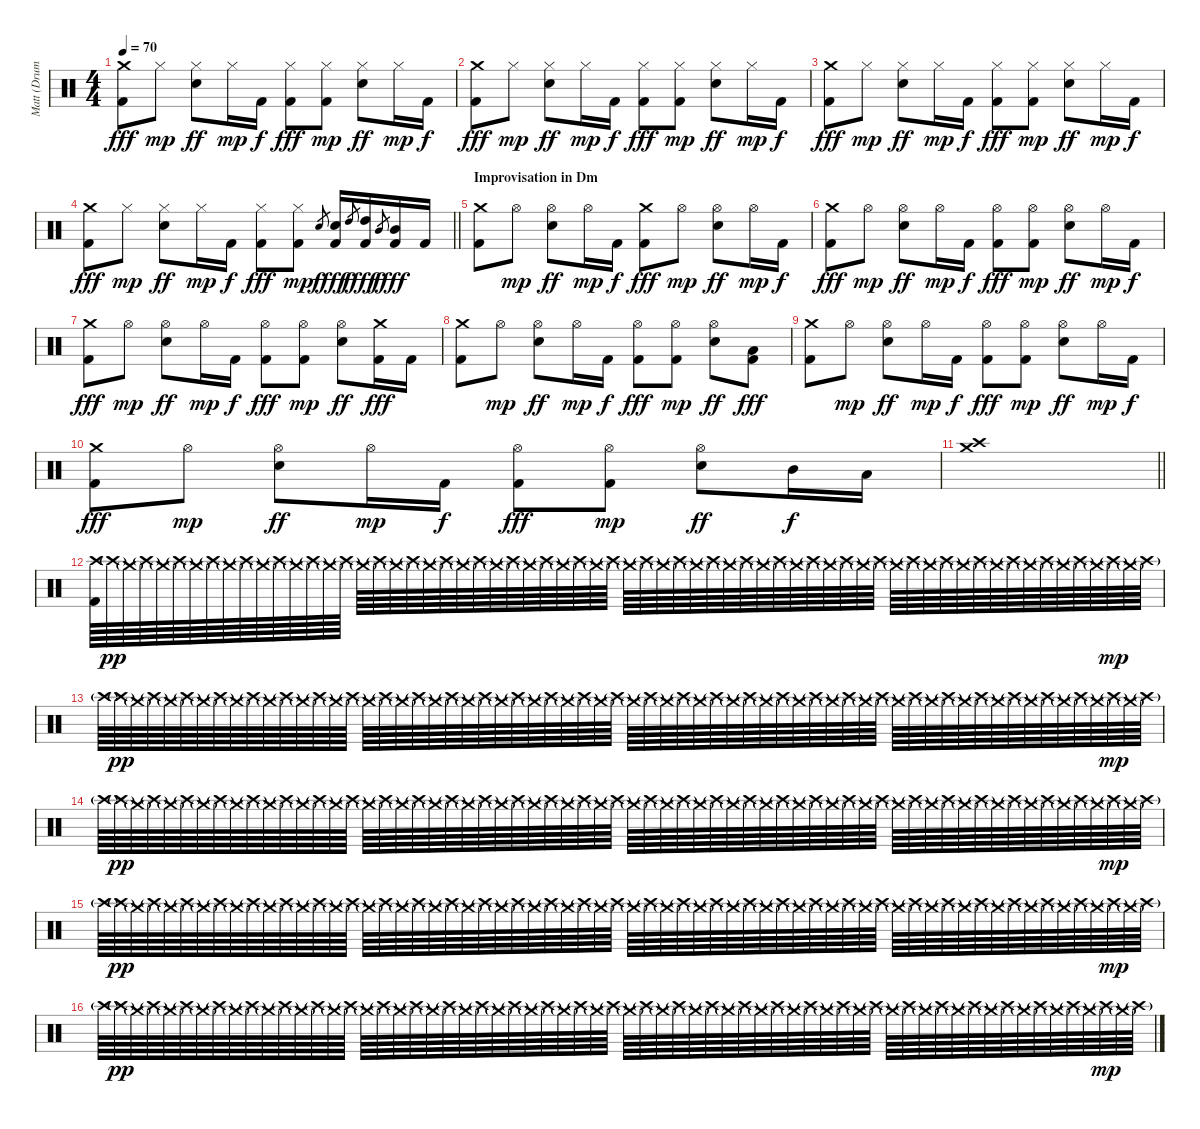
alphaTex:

\track ("Matt (Drums)" "Matt (Drum") {instrument percussion}
\staff {score}
\articulation defaults
\ts (4 4)
\tempo 70
\clef neutral
\ks c
("Crash medium (hit)" "Kick (hit) 2").8{dy fff} "Hi-Hat (closed)".8{dy mp} ("Hi-Hat (closed)" "Snare (hit) 2").8{dy ff} "Hi-Hat (closed)".16{dy mp} "Kick (hit) 2".16{dy f} ("Hi-Hat (closed)" "Kick (hit) 2").8{dy fff} ("Hi-Hat (closed)" "Kick (hit) 2").8{dy mp} ("Hi-Hat (closed)" "Snare (hit) 2").8{dy ff} "Hi-Hat (closed)".16{dy mp} "Kick (hit) 2".16{dy f} |
("Crash medium (hit)" "Kick (hit) 2").8{dy fff} "Hi-Hat (closed)".8{dy mp} ("Hi-Hat (closed)" "Snare (hit) 2").8{dy ff} "Hi-Hat (closed)".16{dy mp} "Kick (hit) 2".16{dy f} ("Hi-Hat (closed)" "Kick (hit) 2").8{dy fff} ("Hi-Hat (closed)" "Kick (hit) 2").8{dy mp} ("Hi-Hat (closed)" "Snare (hit) 2").8{dy ff} "Hi-Hat (closed)".16{dy mp} "Kick (hit) 2".16{dy f} |
("Crash medium (hit)" "Kick (hit) 2").8{dy fff} "Hi-Hat (closed)".8{dy mp} ("Hi-Hat (closed)" "Snare (hit) 2").8{dy ff} "Hi-Hat (closed)".16{dy mp} "Kick (hit) 2".16{dy f} ("Hi-Hat (closed)" "Kick (hit) 2").8{dy fff} ("Hi-Hat (closed)" "Kick (hit) 2").8{dy mp} ("Hi-Hat (closed)" "Snare (hit) 2").8{dy ff} "Hi-Hat (closed)".16{dy mp} "Kick (hit) 2".16{dy f} |
\barLineRight lightlight
("Crash medium (hit)" "Kick (hit) 2").8{dy fff} "Hi-Hat (closed)".8{dy mp} ("Hi-Hat (closed)" "Snare (hit) 2").8{dy ff} "Hi-Hat (closed)".16{dy mp} "Kick (hit) 2".16{dy f} ("Hi-Hat (closed)" "Kick (hit) 2").8{dy fff} ("Hi-Hat (closed)" "Kick (hit) 2").8{dy mp} "Snare (hit) 2".8{gr dy f} ("Snare (hit) 2" "Kick (hit) 2").16{dy fff} "High Tom (hit)".8{gr dy f} ("High Tom (hit)" "Kick (hit) 2").16{dy fff} "Mid Tom (hit)".8{gr dy f} ("Mid Tom (hit)" "Kick (hit) 2").16{dy fff} "Kick (hit) 2".16 |
\section ("" "Improvisation in Dm")
("Crash medium (hit)" "Kick (hit) 2").8 "Hi-Hat (open)".8{dy mp} ("Hi-Hat (open)" "Snare (hit) 2").8{dy ff} "Hi-Hat (open)".16{dy mp} "Kick (hit) 2".16{dy f} ("Crash medium (hit)" "Kick (hit) 2").8{dy fff} "Hi-Hat (open)".8{dy mp} ("Hi-Hat (open)" "Snare (hit) 2").8{dy ff} "Hi-Hat (open)".16{dy mp} "Kick (hit) 2".16{dy f} |
("Crash medium (hit)" "Kick (hit) 2").8{dy fff} "Hi-Hat (open)".8{dy mp} ("Hi-Hat (open)" "Snare (hit) 2").8{dy ff} "Hi-Hat (open)".16{dy mp} "Kick (hit) 2".16{dy f} ("Hi-Hat (open)" "Kick (hit) 2").8{dy fff} ("Hi-Hat (open)" "Kick (hit) 2").8{dy mp} ("Hi-Hat (open)" "Snare (hit) 2").8{dy ff} "Hi-Hat (open)".16{dy mp} "Kick (hit) 2".16{dy f} |
("Crash medium (hit)" "Kick (hit) 2").8{dy fff} "Hi-Hat (open)".8{dy mp} ("Hi-Hat (open)" "Snare (hit) 2").8{dy ff} "Hi-Hat (open)".16{dy mp} "Kick (hit) 2".16{dy f} ("Hi-Hat (open)" "Kick (hit) 2").8{dy fff} ("Hi-Hat (open)" "Kick (hit) 2").8{dy mp} ("Hi-Hat (open)" "Snare (hit) 2").8{dy ff} ("Crash medium (hit)" "Kick (hit) 2").16{dy fff} "Kick (hit) 2".16 |
("Crash medium (hit)" "Kick (hit) 2").8 "Hi-Hat (open)".8{dy mp} ("Hi-Hat (open)" "Snare (hit) 2").8{dy ff} "Hi-Hat (open)".16{dy mp} "Kick (hit) 2".16{dy f} ("Hi-Hat (open)" "Kick (hit) 2").8{dy fff} ("Hi-Hat (open)" "Kick (hit) 2").8{dy mp} ("Hi-Hat (open)" "Snare (hit) 2").8{dy ff} ("Low Tom (hit)" "Kick (hit) 2").8{dy fff} |
("Crash medium (hit)" "Kick (hit) 2").8 "Hi-Hat (open)".8{dy mp} ("Hi-Hat (open)" "Snare (hit) 2").8{dy ff} "Hi-Hat (open)".16{dy mp} "Kick (hit) 2".16{dy f} ("Hi-Hat (open)" "Kick (hit) 2").8{dy fff} ("Hi-Hat (open)" "Kick (hit) 2").8{dy mp} ("Hi-Hat (open)" "Snare (hit) 2").8{dy ff} "Hi-Hat (open)".16{dy mp} "Kick (hit) 2".16{dy f} |
("Crash medium (hit)" "Kick (hit) 2").8{dy fff} "Hi-Hat (open)".8{dy mp} ("Hi-Hat (open)" "Snare (hit) 2").8{dy ff} "Hi-Hat (open)".16{dy mp} "Kick (hit) 2".16{dy f} ("Hi-Hat (open)" "Kick (hit) 2").8{dy fff} ("Hi-Hat (open)" "Kick (hit) 2").8{dy mp} ("Hi-Hat (open)" "Snare (hit) 2").8{dy ff} "Mid Tom (hit)".16{dy f} "Low Tom (hit)".16 |
\barLineRight lightlight
("Crash medium (hit)" "Crash high (hit)").1 |
("Crash high (hit)" "Kick (hit) 2").64 "Crash high (hit)"{g}.64{dy pp} "Crash medium (hit)"{g}.64 "Crash high (hit)"{g}.64 "Crash medium (hit)"{g}.64 "Crash high (hit)"{g}.64 "Crash medium (hit)"{g}.64 "Crash high (hit)"{g}.64 "Crash medium (hit)"{g}.64 "Crash high (hit)"{g}.64 "Crash medium (hit)"{g}.64 "Crash high (hit)"{g}.64 "Crash medium (hit)"{g}.64 "Crash high (hit)"{g}.64 "Crash medium (hit)"{g}.64 "Crash high (hit)"{g}.64 "Crash medium (hit)"{g}.64 "Crash high (hit)"{g}.64 "Crash medium (hit)"{g}.64 "Crash high (hit)"{g}.64 "Crash medium (hit)"{g}.64 "Crash high (hit)"{g}.64 "Crash medium (hit)"{g}.64 "Crash high (hit)"{g}.64 "Crash medium (hit)"{g}.64 "Crash high (hit)"{g}.64 "Crash medium (hit)"{g}.64 "Crash high (hit)"{g}.64 "Crash medium (hit)"{g}.64 "Crash high (hit)"{g}.64 "Crash medium (hit)"{g}.64 "Crash high (hit)"{g}.64 "Crash medium (hit)"{g}.64 "Crash high (hit)"{g}.64 "Crash medium (hit)"{g}.64 "Crash high (hit)"{g}.64 "Crash medium (hit)"{g}.64 "Crash high (hit)"{g}.64 "Crash medium (hit)"{g}.64 "Crash high (hit)"{g}.64 "Crash medium (hit)"{g}.64 "Crash high (hit)"{g}.64 "Crash medium (hit)"{g}.64 "Crash high (hit)"{g}.64 "Crash medium (hit)"{g}.64 "Crash high (hit)"{g}.64 "Crash medium (hit)"{g}.64 "Crash high (hit)"{g}.64 "Crash medium (hit)"{g}.64 "Crash high (hit)"{g}.64 "Crash medium (hit)"{g}.64 "Crash high (hit)"{g}.64 "Crash medium (hit)"{g}.64 "Crash high (hit)"{g}.64 "Crash medium (hit)"{g}.64 "Crash high (hit)"{g}.64 "Crash medium (hit)"{g}.64 "Crash high (hit)"{g}.64 "Crash medium (hit)"{g}.64 "Crash high (hit)"{g}.64 "Crash medium (hit)"{g}.64 "Crash high (hit)"{g}.64{dy mp} "Crash medium (hit)"{g}.64 "Crash high (hit)"{g}.64 |
"Crash high (hit)"{g}.64 "Crash high (hit)"{g}.64{dy pp} "Crash medium (hit)"{g}.64 "Crash high (hit)"{g}.64 "Crash medium (hit)"{g}.64 "Crash high (hit)"{g}.64 "Crash medium (hit)"{g}.64 "Crash high (hit)"{g}.64 "Crash medium (hit)"{g}.64 "Crash high (hit)"{g}.64 "Crash medium (hit)"{g}.64 "Crash high (hit)"{g}.64 "Crash medium (hit)"{g}.64 "Crash high (hit)"{g}.64 "Crash medium (hit)"{g}.64 "Crash high (hit)"{g}.64 "Crash medium (hit)"{g}.64 "Crash high (hit)"{g}.64 "Crash medium (hit)"{g}.64 "Crash high (hit)"{g}.64 "Crash medium (hit)"{g}.64 "Crash high (hit)"{g}.64 "Crash medium (hit)"{g}.64 "Crash high (hit)"{g}.64 "Crash medium (hit)"{g}.64 "Crash high (hit)"{g}.64 "Crash medium (hit)"{g}.64 "Crash high (hit)"{g}.64 "Crash medium (hit)"{g}.64 "Crash high (hit)"{g}.64 "Crash medium (hit)"{g}.64 "Crash high (hit)"{g}.64 "Crash medium (hit)"{g}.64 "Crash high (hit)"{g}.64 "Crash medium (hit)"{g}.64 "Crash high (hit)"{g}.64 "Crash medium (hit)"{g}.64 "Crash high (hit)"{g}.64 "Crash medium (hit)"{g}.64 "Crash high (hit)"{g}.64 "Crash medium (hit)"{g}.64 "Crash high (hit)"{g}.64 "Crash medium (hit)"{g}.64 "Crash high (hit)"{g}.64 "Crash medium (hit)"{g}.64 "Crash high (hit)"{g}.64 "Crash medium (hit)"{g}.64 "Crash high (hit)"{g}.64 "Crash medium (hit)"{g}.64 "Crash high (hit)"{g}.64 "Crash medium (hit)"{g}.64 "Crash high (hit)"{g}.64 "Crash medium (hit)"{g}.64 "Crash high (hit)"{g}.64 "Crash medium (hit)"{g}.64 "Crash high (hit)"{g}.64 "Crash medium (hit)"{g}.64 "Crash high (hit)"{g}.64 "Crash medium (hit)"{g}.64 "Crash high (hit)"{g}.64 "Crash medium (hit)"{g}.64 "Crash high (hit)"{g}.64{dy mp} "Crash medium (hit)"{g}.64 "Crash high (hit)"{g}.64 |
"Crash high (hit)"{g}.64 "Crash high (hit)"{g}.64{dy pp} "Crash medium (hit)"{g}.64 "Crash high (hit)"{g}.64 "Crash medium (hit)"{g}.64 "Crash high (hit)"{g}.64 "Crash medium (hit)"{g}.64 "Crash high (hit)"{g}.64 "Crash medium (hit)"{g}.64 "Crash high (hit)"{g}.64 "Crash medium (hit)"{g}.64 "Crash high (hit)"{g}.64 "Crash medium (hit)"{g}.64 "Crash high (hit)"{g}.64 "Crash medium (hit)"{g}.64 "Crash high (hit)"{g}.64 "Crash medium (hit)"{g}.64 "Crash high (hit)"{g}.64 "Crash medium (hit)"{g}.64 "Crash high (hit)"{g}.64 "Crash medium (hit)"{g}.64 "Crash high (hit)"{g}.64 "Crash medium (hit)"{g}.64 "Crash high (hit)"{g}.64 "Crash medium (hit)"{g}.64 "Crash high (hit)"{g}.64 "Crash medium (hit)"{g}.64 "Crash high (hit)"{g}.64 "Crash medium (hit)"{g}.64 "Crash high (hit)"{g}.64 "Crash medium (hit)"{g}.64 "Crash high (hit)"{g}.64 "Crash medium (hit)"{g}.64 "Crash high (hit)"{g}.64 "Crash medium (hit)"{g}.64 "Crash high (hit)"{g}.64 "Crash medium (hit)"{g}.64 "Crash high (hit)"{g}.64 "Crash medium (hit)"{g}.64 "Crash high (hit)"{g}.64 "Crash medium (hit)"{g}.64 "Crash high (hit)"{g}.64 "Crash medium (hit)"{g}.64 "Crash high (hit)"{g}.64 "Crash medium (hit)"{g}.64 "Crash high (hit)"{g}.64 "Crash medium (hit)"{g}.64 "Crash high (hit)"{g}.64 "Crash medium (hit)"{g}.64 "Crash high (hit)"{g}.64 "Crash medium (hit)"{g}.64 "Crash high (hit)"{g}.64 "Crash medium (hit)"{g}.64 "Crash high (hit)"{g}.64 "Crash medium (hit)"{g}.64 "Crash high (hit)"{g}.64 "Crash medium (hit)"{g}.64 "Crash high (hit)"{g}.64 "Crash medium (hit)"{g}.64 "Crash high (hit)"{g}.64 "Crash medium (hit)"{g}.64 "Crash high (hit)"{g}.64{dy mp} "Crash medium (hit)"{g}.64 "Crash high (hit)"{g}.64 |
"Crash high (hit)"{g}.64 "Crash high (hit)"{g}.64{dy pp} "Crash medium (hit)"{g}.64 "Crash high (hit)"{g}.64 "Crash medium (hit)"{g}.64 "Crash high (hit)"{g}.64 "Crash medium (hit)"{g}.64 "Crash high (hit)"{g}.64 "Crash medium (hit)"{g}.64 "Crash high (hit)"{g}.64 "Crash medium (hit)"{g}.64 "Crash high (hit)"{g}.64 "Crash medium (hit)"{g}.64 "Crash high (hit)"{g}.64 "Crash medium (hit)"{g}.64 "Crash high (hit)"{g}.64 "Crash medium (hit)"{g}.64 "Crash high (hit)"{g}.64 "Crash medium (hit)"{g}.64 "Crash high (hit)"{g}.64 "Crash medium (hit)"{g}.64 "Crash high (hit)"{g}.64 "Crash medium (hit)"{g}.64 "Crash high (hit)"{g}.64 "Crash medium (hit)"{g}.64 "Crash high (hit)"{g}.64 "Crash medium (hit)"{g}.64 "Crash high (hit)"{g}.64 "Crash medium (hit)"{g}.64 "Crash high (hit)"{g}.64 "Crash medium (hit)"{g}.64 "Crash high (hit)"{g}.64 "Crash medium (hit)"{g}.64 "Crash high (hit)"{g}.64 "Crash medium (hit)"{g}.64 "Crash high (hit)"{g}.64 "Crash medium (hit)"{g}.64 "Crash high (hit)"{g}.64 "Crash medium (hit)"{g}.64 "Crash high (hit)"{g}.64 "Crash medium (hit)"{g}.64 "Crash high (hit)"{g}.64 "Crash medium (hit)"{g}.64 "Crash high (hit)"{g}.64 "Crash medium (hit)"{g}.64 "Crash high (hit)"{g}.64 "Crash medium (hit)"{g}.64 "Crash high (hit)"{g}.64 "Crash medium (hit)"{g}.64 "Crash high (hit)"{g}.64 "Crash medium (hit)"{g}.64 "Crash high (hit)"{g}.64 "Crash medium (hit)"{g}.64 "Crash high (hit)"{g}.64 "Crash medium (hit)"{g}.64 "Crash high (hit)"{g}.64 "Crash medium (hit)"{g}.64 "Crash high (hit)"{g}.64 "Crash medium (hit)"{g}.64 "Crash high (hit)"{g}.64 "Crash medium (hit)"{g}.64 "Crash high (hit)"{g}.64{dy mp} "Crash medium (hit)"{g}.64 "Crash high (hit)"{g}.64 |
"Crash high (hit)"{g}.64 "Crash high (hit)"{g}.64{dy pp} "Crash medium (hit)"{g}.64 "Crash high (hit)"{g}.64 "Crash medium (hit)"{g}.64 "Crash high (hit)"{g}.64 "Crash medium (hit)"{g}.64 "Crash high (hit)"{g}.64 "Crash medium (hit)"{g}.64 "Crash high (hit)"{g}.64 "Crash medium (hit)"{g}.64 "Crash high (hit)"{g}.64 "Crash medium (hit)"{g}.64 "Crash high (hit)"{g}.64 "Crash medium (hit)"{g}.64 "Crash high (hit)"{g}.64 "Crash medium (hit)"{g}.64 "Crash high (hit)"{g}.64 "Crash medium (hit)"{g}.64 "Crash high (hit)"{g}.64 "Crash medium (hit)"{g}.64 "Crash high (hit)"{g}.64 "Crash medium (hit)"{g}.64 "Crash high (hit)"{g}.64 "Crash medium (hit)"{g}.64 "Crash high (hit)"{g}.64 "Crash medium (hit)"{g}.64 "Crash high (hit)"{g}.64 "Crash medium (hit)"{g}.64 "Crash high (hit)"{g}.64 "Crash medium (hit)"{g}.64 "Crash high (hit)"{g}.64 "Crash medium (hit)"{g}.64 "Crash high (hit)"{g}.64 "Crash medium (hit)"{g}.64 "Crash high (hit)"{g}.64 "Crash medium (hit)"{g}.64 "Crash high (hit)"{g}.64 "Crash medium (hit)"{g}.64 "Crash high (hit)"{g}.64 "Crash medium (hit)"{g}.64 "Crash high (hit)"{g}.64 "Crash medium (hit)"{g}.64 "Crash high (hit)"{g}.64 "Crash medium (hit)"{g}.64 "Crash high (hit)"{g}.64 "Crash medium (hit)"{g}.64 "Crash high (hit)"{g}.64 "Crash medium (hit)"{g}.64 "Crash high (hit)"{g}.64 "Crash medium (hit)"{g}.64 "Crash high (hit)"{g}.64 "Crash medium (hit)"{g}.64 "Crash high (hit)"{g}.64 "Crash medium (hit)"{g}.64 "Crash high (hit)"{g}.64 "Crash medium (hit)"{g}.64 "Crash high (hit)"{g}.64 "Crash medium (hit)"{g}.64 "Crash high (hit)"{g}.64 "Crash medium (hit)"{g}.64 "Crash high (hit)"{g}.64{dy mp} "Crash medium (hit)"{g}.64 "Crash high (hit)"{g}.64
